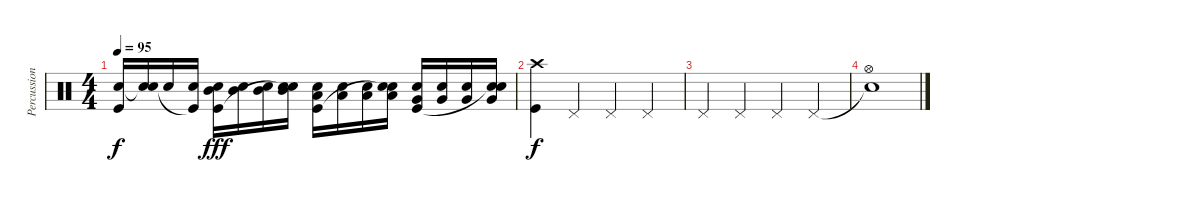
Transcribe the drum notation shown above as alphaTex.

\track ("Percussions" "Percussion") {instrument percussion}
\staff {score}
\articulation defaults
\ts (4 4)
\tempo 95
\clef neutral
\ks c
("Snare (hit) 2" "Kick (hit)").16{dy f} ("Snare (hit)"{t} "Snare (hit) 2").16 "Snare (hit) 2".16 ("Snare (hit) 2" "Kick (hit)"{t}).16 ("Mid Tom (hit)" "Snare (hit) 2" "Kick (hit)").16{dy fff} ("Mid Tom (hit)" "Snare (hit) 2").16 ("Mid Tom (hit)" "Snare (hit) 2").16 ("Mid Tom (hit)" "Snare (hit) 2" "Snare (hit)"{t}).16 ("Low Tom (hit)" "Snare (hit) 2" "Kick (hit)").16 ("Low Tom (hit)" "Snare (hit) 2").16 ("Low Tom (hit)" "Snare (hit) 2").16 ("Low Tom (hit)" "Snare (hit) 2" "Snare (hit)"{t}).16 ("Very Low Tom (hit)" "Snare (hit) 2" "Kick (hit)").16 ("Very Low Tom (hit)" "Snare (hit) 2").16 ("Very Low Tom (hit)" "Snare (hit) 2").16 ("Very Low Tom (hit)" "Snare (hit) 2" "Snare (hit)"{t}).16 |
("Crash high (hit)" "Kick (hit)").4{dy f} "Pedal Hi-Hat (hit)".4 "Pedal Hi-Hat (hit)".4 "Pedal Hi-Hat (hit)".4 |
"Pedal Hi-Hat (hit)".4 "Pedal Hi-Hat (hit)".4 "Pedal Hi-Hat (hit)".4 "Pedal Hi-Hat (hit)".4 |
("Snare (hit)"{t} "Hi-Hat (open)").1
